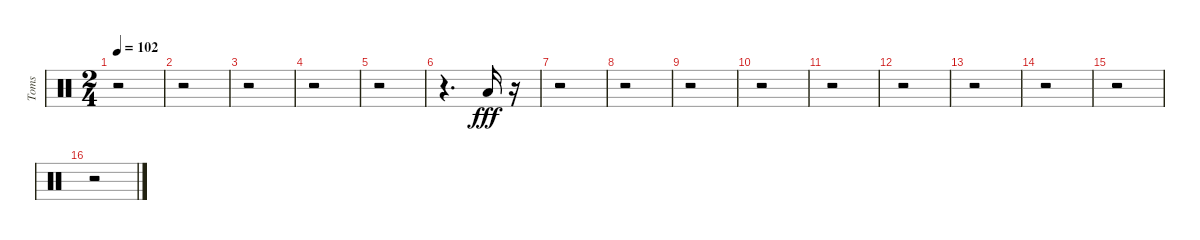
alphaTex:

\track ("Toms" "Toms") {instrument percussion}
\staff {score}
\articulation defaults
\ts (2 4)
\tempo 102
\clef neutral
\ks c
r.2{dy fff} |
r.2 |
r.2 |
r.2 |
r.2 |
r.4{d} "Low Floor Tom (hit)".16 r.16 |
r.2 |
r.2 |
r.2 |
r.2 |
r.2 |
r.2 |
r.2 |
r.2 |
r.2 |
r.2
